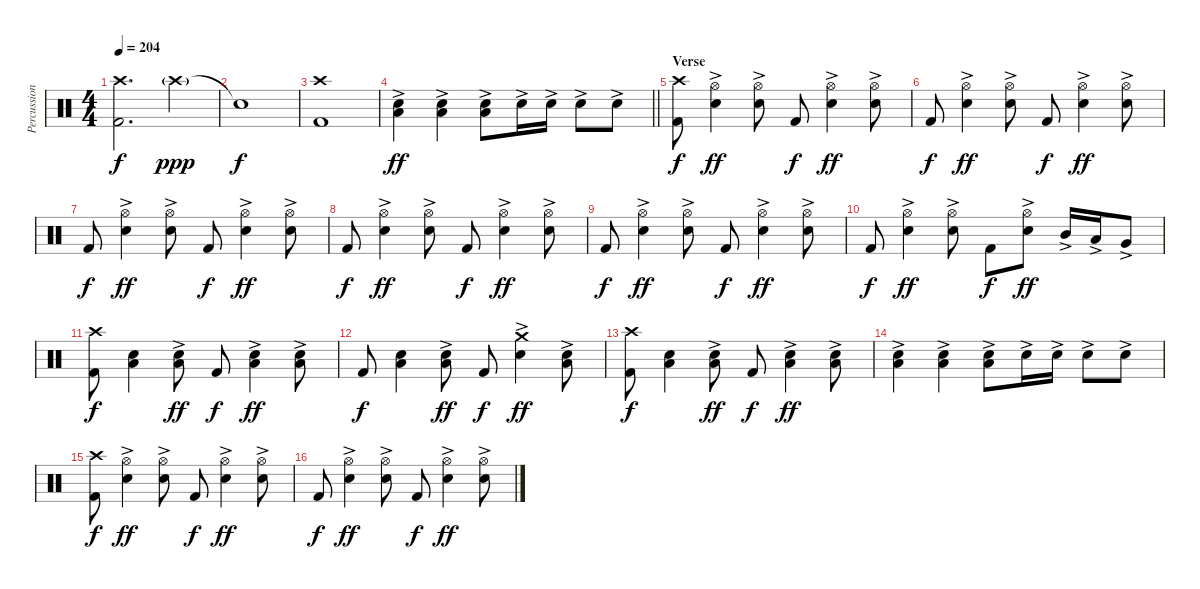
\track ("Percussion" "Percussion") {instrument percussion}
\staff {score}
\articulation defaults
\ts (4 4)
\tempo 204
\clef neutral
\ks c
("Crash high (hit)" "Kick (hit) 2").2{d dy f} "Crash high (hit)"{g}.4{dy ppp} |
"Snare (hit)"{t}.1{dy f} |
("Crash high (hit)" "Kick (hit) 2").1 |
\barLineRight lightlight
("Low Tom (hit)" "Electric Snare (hit)"{ac}).4{dy ff} ("Low Tom (hit)" "Electric Snare (hit)"{ac}).4 ("Low Tom (hit)" "Electric Snare (hit)"{ac}).8 "Electric Snare (hit)"{ac}.16 "Electric Snare (hit)"{ac}.16 "Electric Snare (hit)"{ac}.8 "Electric Snare (hit)"{ac}.8 |
\section ("" "Verse")
("Crash high (hit)" "Kick (hit) 2").8{dy f} ("Hi-Hat (open)" "Electric Snare (hit)"{ac}).4{dy ff} ("Hi-Hat (open)" "Electric Snare (hit)"{ac}).8 "Kick (hit) 2".8{dy f} ("Hi-Hat (open)" "Electric Snare (hit)"{ac}).4{dy ff} ("Hi-Hat (open)" "Electric Snare (hit)"{ac}).8 |
"Kick (hit) 2".8{dy f} ("Hi-Hat (open)" "Electric Snare (hit)"{ac}).4{dy ff} ("Hi-Hat (open)" "Electric Snare (hit)"{ac}).8 "Kick (hit) 2".8{dy f} ("Hi-Hat (open)" "Electric Snare (hit)"{ac}).4{dy ff} ("Hi-Hat (open)" "Electric Snare (hit)"{ac}).8 |
"Kick (hit) 2".8{dy f} ("Hi-Hat (open)" "Electric Snare (hit)"{ac}).4{dy ff} ("Hi-Hat (open)" "Electric Snare (hit)"{ac}).8 "Kick (hit) 2".8{dy f} ("Hi-Hat (open)" "Electric Snare (hit)"{ac}).4{dy ff} ("Hi-Hat (open)" "Electric Snare (hit)"{ac}).8 |
"Kick (hit) 2".8{dy f} ("Hi-Hat (open)" "Electric Snare (hit)"{ac}).4{dy ff} ("Hi-Hat (open)" "Electric Snare (hit)"{ac}).8 "Kick (hit) 2".8{dy f} ("Hi-Hat (open)" "Electric Snare (hit)"{ac}).4{dy ff} ("Hi-Hat (open)" "Electric Snare (hit)"{ac}).8 |
"Kick (hit) 2".8{dy f} ("Hi-Hat (open)" "Electric Snare (hit)"{ac}).4{dy ff} ("Hi-Hat (open)" "Electric Snare (hit)"{ac}).8 "Kick (hit) 2".8{dy f} ("Hi-Hat (open)" "Electric Snare (hit)"{ac}).4{dy ff} ("Hi-Hat (open)" "Electric Snare (hit)"{ac}).8 |
"Kick (hit) 2".8{dy f} ("Hi-Hat (open)" "Electric Snare (hit)"{ac}).4{dy ff} ("Hi-Hat (open)" "Electric Snare (hit)"{ac}).8 "Kick (hit) 2".8{dy f} ("Hi-Hat (open)" "Electric Snare (hit)"{ac}).8{dy ff} "Mid Tom (hit)"{ac}.16 "Low Tom (hit)"{ac}.16 "Very Low Tom (hit)"{ac}.8 |
("Crash high (hit)" "Kick (hit) 2").8{dy f} ("Low Tom (hit)" "Electric Snare (hit)").4 ("Low Tom (hit)" "Electric Snare (hit)"{ac}).8{dy ff} "Kick (hit) 2".8{dy f} ("Low Tom (hit)" "Electric Snare (hit)"{ac}).4{dy ff} ("Low Tom (hit)" "Electric Snare (hit)"{ac}).8 |
"Kick (hit) 2".8{dy f} ("Low Tom (hit)" "Electric Snare (hit)").4 ("Low Tom (hit)" "Electric Snare (hit)"{ac}).8{dy ff} "Kick (hit) 2".8{dy f} ("Crash medium (hit)" "Electric Snare (hit)"{ac}).4{dy ff} ("Low Tom (hit)" "Electric Snare (hit)"{ac}).8 |
("Crash high (hit)" "Kick (hit) 2").8{dy f} ("Low Tom (hit)" "Electric Snare (hit)").4 ("Low Tom (hit)" "Electric Snare (hit)"{ac}).8{dy ff} "Kick (hit) 2".8{dy f} ("Low Tom (hit)" "Electric Snare (hit)"{ac}).4{dy ff} ("Low Tom (hit)" "Electric Snare (hit)"{ac}).8 |
("Low Tom (hit)" "Electric Snare (hit)"{ac}).4 ("Low Tom (hit)" "Electric Snare (hit)"{ac}).4 ("Low Tom (hit)" "Electric Snare (hit)"{ac}).8 "Electric Snare (hit)"{ac}.16 "Electric Snare (hit)"{ac}.16 "Electric Snare (hit)"{ac}.8 "Electric Snare (hit)"{ac}.8 |
("Crash high (hit)" "Kick (hit) 2").8{dy f} ("Hi-Hat (open)" "Electric Snare (hit)"{ac}).4{dy ff} ("Hi-Hat (open)" "Electric Snare (hit)"{ac}).8 "Kick (hit) 2".8{dy f} ("Hi-Hat (open)" "Electric Snare (hit)"{ac}).4{dy ff} ("Hi-Hat (open)" "Electric Snare (hit)"{ac}).8 |
"Kick (hit) 2".8{dy f} ("Hi-Hat (open)" "Electric Snare (hit)"{ac}).4{dy ff} ("Hi-Hat (open)" "Electric Snare (hit)"{ac}).8 "Kick (hit) 2".8{dy f} ("Hi-Hat (open)" "Electric Snare (hit)"{ac}).4{dy ff} ("Hi-Hat (open)" "Electric Snare (hit)"{ac}).8
